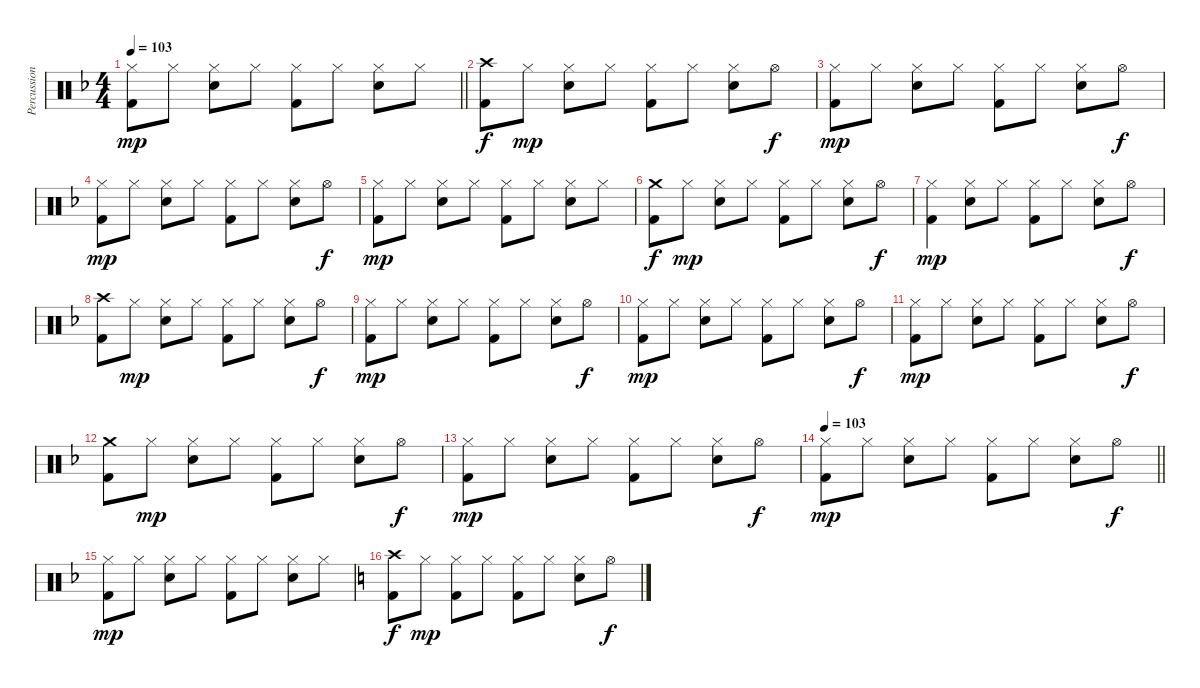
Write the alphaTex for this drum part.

\track ("Percussions" "Percussion") {instrument percussion}
\staff {score}
\articulation defaults
\ts (4 4)
\tempo 103
\clef neutral
\barLineRight lightlight
\ks dminor
("Hi-Hat (closed)" "Kick (hit) 2").8{dy mp} "Hi-Hat (closed)".8 ("Hi-Hat (closed)" "Snare (hit) 2").8 "Hi-Hat (closed)".8 ("Hi-Hat (closed)" "Kick (hit) 2").8 "Hi-Hat (closed)".8 ("Hi-Hat (closed)" "Snare (hit) 2").8 "Hi-Hat (closed)".8 |
("Crash high (hit)" "Kick (hit) 2").8{dy f} "Hi-Hat (closed)".8{dy mp} ("Hi-Hat (closed)" "Snare (hit) 2").8 "Hi-Hat (closed)".8 ("Hi-Hat (closed)" "Kick (hit) 2").8 "Hi-Hat (closed)".8 ("Hi-Hat (closed)" "Snare (hit) 2").8 "Hi-Hat (open)".8{dy f} |
("Hi-Hat (closed)" "Kick (hit) 2").8{dy mp} "Hi-Hat (closed)".8 ("Hi-Hat (closed)" "Snare (hit) 2").8 "Hi-Hat (closed)".8 ("Hi-Hat (closed)" "Kick (hit) 2").8 "Hi-Hat (closed)".8 ("Hi-Hat (closed)" "Snare (hit) 2").8 "Hi-Hat (open)".8{dy f} |
("Hi-Hat (closed)" "Kick (hit) 2").8{dy mp} "Hi-Hat (closed)".8 ("Hi-Hat (closed)" "Snare (hit) 2").8 "Hi-Hat (closed)".8 ("Hi-Hat (closed)" "Kick (hit) 2").8 "Hi-Hat (closed)".8 ("Hi-Hat (closed)" "Snare (hit) 2").8 "Hi-Hat (open)".8{dy f} |
("Hi-Hat (closed)" "Kick (hit) 2").8{dy mp} "Hi-Hat (closed)".8 ("Hi-Hat (closed)" "Snare (hit) 2").8 "Hi-Hat (closed)".8 ("Hi-Hat (closed)" "Kick (hit) 2").8 "Hi-Hat (closed)".8 ("Hi-Hat (closed)" "Snare (hit) 2").8 "Hi-Hat (closed)".8 |
("Crash medium (hit)" "Kick (hit) 2").8{dy f} "Hi-Hat (closed)".8{dy mp} ("Hi-Hat (closed)" "Snare (hit) 2").8 "Hi-Hat (closed)".8 ("Hi-Hat (closed)" "Kick (hit) 2").8 "Hi-Hat (closed)".8 ("Hi-Hat (closed)" "Snare (hit) 2").8 "Hi-Hat (open)".8{dy f} |
("Hi-Hat (closed)" "Kick (hit) 2").4{dy mp} ("Hi-Hat (closed)" "Snare (hit) 2").8 "Hi-Hat (closed)".8 ("Hi-Hat (closed)" "Kick (hit) 2").8 "Hi-Hat (closed)".8 ("Hi-Hat (closed)" "Snare (hit) 2").8 "Hi-Hat (open)".8{dy f} |
("Crash high (hit)" "Kick (hit) 2").8 "Hi-Hat (closed)".8{dy mp} ("Hi-Hat (closed)" "Snare (hit) 2").8 "Hi-Hat (closed)".8 ("Hi-Hat (closed)" "Kick (hit) 2").8 "Hi-Hat (closed)".8 ("Hi-Hat (closed)" "Snare (hit) 2").8 "Hi-Hat (open)".8{dy f} |
("Hi-Hat (closed)" "Kick (hit) 2").8{dy mp} "Hi-Hat (closed)".8 ("Hi-Hat (closed)" "Snare (hit) 2").8 "Hi-Hat (closed)".8 ("Hi-Hat (closed)" "Kick (hit) 2").8 "Hi-Hat (closed)".8 ("Hi-Hat (closed)" "Snare (hit) 2").8 "Hi-Hat (open)".8{dy f} |
("Hi-Hat (closed)" "Kick (hit) 2").8{dy mp} "Hi-Hat (closed)".8 ("Hi-Hat (closed)" "Snare (hit) 2").8 "Hi-Hat (closed)".8 ("Hi-Hat (closed)" "Kick (hit) 2").8 "Hi-Hat (closed)".8 ("Hi-Hat (closed)" "Snare (hit) 2").8 "Hi-Hat (open)".8{dy f} |
("Hi-Hat (closed)" "Kick (hit) 2").8{dy mp} "Hi-Hat (closed)".8 ("Hi-Hat (closed)" "Snare (hit) 2").8 "Hi-Hat (closed)".8 ("Hi-Hat (closed)" "Kick (hit) 2").8 "Hi-Hat (closed)".8 ("Hi-Hat (closed)" "Snare (hit) 2").8 "Hi-Hat (open)".8{dy f} |
("Crash medium (hit)" "Kick (hit) 2").8 "Hi-Hat (closed)".8{dy mp} ("Hi-Hat (closed)" "Snare (hit) 2").8 "Hi-Hat (closed)".8 ("Hi-Hat (closed)" "Kick (hit) 2").8 "Hi-Hat (closed)".8 ("Hi-Hat (closed)" "Snare (hit) 2").8 "Hi-Hat (open)".8{dy f} |
("Hi-Hat (closed)" "Kick (hit) 2").8{dy mp} "Hi-Hat (closed)".8 ("Hi-Hat (closed)" "Snare (hit) 2").8 "Hi-Hat (closed)".8 ("Hi-Hat (closed)" "Kick (hit) 2").8 "Hi-Hat (closed)".8 ("Hi-Hat (closed)" "Snare (hit) 2").8 "Hi-Hat (open)".8{dy f} |
\tempo 103
\barLineRight lightlight
("Hi-Hat (closed)" "Kick (hit) 2").8{dy mp} "Hi-Hat (closed)".8 ("Hi-Hat (closed)" "Snare (hit) 2").8 "Hi-Hat (closed)".8 ("Hi-Hat (closed)" "Kick (hit) 2").8 "Hi-Hat (closed)".8 ("Hi-Hat (closed)" "Snare (hit) 2").8 "Hi-Hat (open)".8{dy f} |
("Hi-Hat (closed)" "Kick (hit) 2").8{dy mp} "Hi-Hat (closed)".8 ("Hi-Hat (closed)" "Snare (hit) 2").8 "Hi-Hat (closed)".8 ("Hi-Hat (closed)" "Kick (hit) 2").8 "Hi-Hat (closed)".8 ("Hi-Hat (closed)" "Snare (hit) 2").8 "Hi-Hat (closed)".8 |
\ks c
("Crash high (hit)" "Kick (hit) 2").8{dy f} "Hi-Hat (closed)".8{dy mp} ("Hi-Hat (closed)" "Kick (hit) 2").8 "Hi-Hat (closed)".8 ("Hi-Hat (closed)" "Kick (hit) 2").8 "Hi-Hat (closed)".8 ("Hi-Hat (closed)" "Snare (hit) 2").8 "Hi-Hat (open)".8{dy f}
